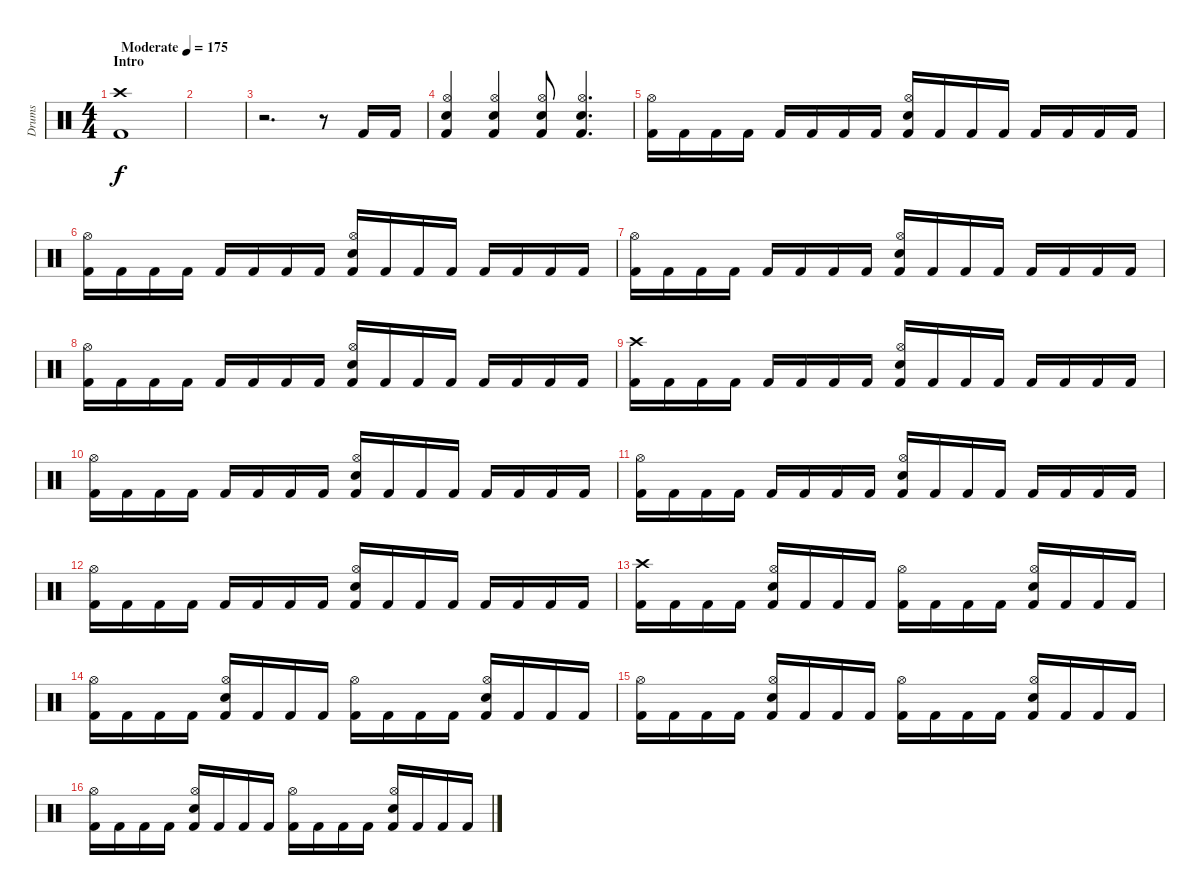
\track ("Drums" "Drums") {instrument percussion}
\staff {score}
\articulation defaults
\ts (4 4)
\section ("" "Intro")
\tempo (175 "Moderate")
\clef neutral
\ks c
("Crash high (hit)" "Kick (hit) 2").1{dy f} |
|
r.2{d} r.8 "Kick (hit) 2".16 "Kick (hit) 2".16 |
("Hi-Hat (open)" "Snare (hit) 2" "Kick (hit) 2").4 ("Hi-Hat (open)" "Snare (hit) 2" "Kick (hit) 2").4 ("Hi-Hat (open)" "Snare (hit) 2" "Kick (hit) 2").8 ("Hi-Hat (open)" "Snare (hit) 2" "Kick (hit) 2").4{d} |
("Hi-Hat (open)" "Kick (hit) 2").16 "Kick (hit) 2".16 "Kick (hit) 2".16 "Kick (hit) 2".16 "Kick (hit) 2".16 "Kick (hit) 2".16 "Kick (hit) 2".16 "Kick (hit) 2".16 ("Hi-Hat (open)" "Snare (hit) 2" "Kick (hit) 2").16 "Kick (hit) 2".16 "Kick (hit) 2".16 "Kick (hit) 2".16 "Kick (hit) 2".16 "Kick (hit) 2".16 "Kick (hit) 2".16 "Kick (hit) 2".16 |
("Hi-Hat (open)" "Kick (hit) 2").16 "Kick (hit) 2".16 "Kick (hit) 2".16 "Kick (hit) 2".16 "Kick (hit) 2".16 "Kick (hit) 2".16 "Kick (hit) 2".16 "Kick (hit) 2".16 ("Hi-Hat (open)" "Snare (hit) 2" "Kick (hit) 2").16 "Kick (hit) 2".16 "Kick (hit) 2".16 "Kick (hit) 2".16 "Kick (hit) 2".16 "Kick (hit) 2".16 "Kick (hit) 2".16 "Kick (hit) 2".16 |
("Hi-Hat (open)" "Kick (hit) 2").16 "Kick (hit) 2".16 "Kick (hit) 2".16 "Kick (hit) 2".16 "Kick (hit) 2".16 "Kick (hit) 2".16 "Kick (hit) 2".16 "Kick (hit) 2".16 ("Hi-Hat (open)" "Snare (hit) 2" "Kick (hit) 2").16 "Kick (hit) 2".16 "Kick (hit) 2".16 "Kick (hit) 2".16 "Kick (hit) 2".16 "Kick (hit) 2".16 "Kick (hit) 2".16 "Kick (hit) 2".16 |
("Hi-Hat (open)" "Kick (hit) 2").16 "Kick (hit) 2".16 "Kick (hit) 2".16 "Kick (hit) 2".16 "Kick (hit) 2".16 "Kick (hit) 2".16 "Kick (hit) 2".16 "Kick (hit) 2".16 ("Hi-Hat (open)" "Snare (hit) 2" "Kick (hit) 2").16 "Kick (hit) 2".16 "Kick (hit) 2".16 "Kick (hit) 2".16 "Kick (hit) 2".16 "Kick (hit) 2".16 "Kick (hit) 2".16 "Kick (hit) 2".16 |
("Crash high (hit)" "Kick (hit) 2").16 "Kick (hit) 2".16 "Kick (hit) 2".16 "Kick (hit) 2".16 "Kick (hit) 2".16 "Kick (hit) 2".16 "Kick (hit) 2".16 "Kick (hit) 2".16 ("Hi-Hat (open)" "Snare (hit) 2" "Kick (hit) 2").16 "Kick (hit) 2".16 "Kick (hit) 2".16 "Kick (hit) 2".16 "Kick (hit) 2".16 "Kick (hit) 2".16 "Kick (hit) 2".16 "Kick (hit) 2".16 |
("Hi-Hat (open)" "Kick (hit) 2").16 "Kick (hit) 2".16 "Kick (hit) 2".16 "Kick (hit) 2".16 "Kick (hit) 2".16 "Kick (hit) 2".16 "Kick (hit) 2".16 "Kick (hit) 2".16 ("Hi-Hat (open)" "Snare (hit) 2" "Kick (hit) 2").16 "Kick (hit) 2".16 "Kick (hit) 2".16 "Kick (hit) 2".16 "Kick (hit) 2".16 "Kick (hit) 2".16 "Kick (hit) 2".16 "Kick (hit) 2".16 |
("Hi-Hat (open)" "Kick (hit) 2").16 "Kick (hit) 2".16 "Kick (hit) 2".16 "Kick (hit) 2".16 "Kick (hit) 2".16 "Kick (hit) 2".16 "Kick (hit) 2".16 "Kick (hit) 2".16 ("Hi-Hat (open)" "Snare (hit) 2" "Kick (hit) 2").16 "Kick (hit) 2".16 "Kick (hit) 2".16 "Kick (hit) 2".16 "Kick (hit) 2".16 "Kick (hit) 2".16 "Kick (hit) 2".16 "Kick (hit) 2".16 |
("Hi-Hat (open)" "Kick (hit) 2").16 "Kick (hit) 2".16 "Kick (hit) 2".16 "Kick (hit) 2".16 "Kick (hit) 2".16 "Kick (hit) 2".16 "Kick (hit) 2".16 "Kick (hit) 2".16 ("Hi-Hat (open)" "Snare (hit) 2" "Kick (hit) 2").16 "Kick (hit) 2".16 "Kick (hit) 2".16 "Kick (hit) 2".16 "Kick (hit) 2".16 "Kick (hit) 2".16 "Kick (hit) 2".16 "Kick (hit) 2".16 |
("Crash high (hit)" "Kick (hit) 2").16 "Kick (hit) 2".16 "Kick (hit) 2".16 "Kick (hit) 2".16 ("Hi-Hat (open)" "Snare (hit) 2" "Kick (hit) 2").16 "Kick (hit) 2".16 "Kick (hit) 2".16 "Kick (hit) 2".16 ("Hi-Hat (open)" "Kick (hit) 2").16 "Kick (hit) 2".16 "Kick (hit) 2".16 "Kick (hit) 2".16 ("Hi-Hat (open)" "Snare (hit) 2" "Kick (hit) 2").16 "Kick (hit) 2".16 "Kick (hit) 2".16 "Kick (hit) 2".16 |
("Hi-Hat (open)" "Kick (hit) 2").16 "Kick (hit) 2".16 "Kick (hit) 2".16 "Kick (hit) 2".16 ("Hi-Hat (open)" "Snare (hit) 2" "Kick (hit) 2").16 "Kick (hit) 2".16 "Kick (hit) 2".16 "Kick (hit) 2".16 ("Hi-Hat (open)" "Kick (hit) 2").16 "Kick (hit) 2".16 "Kick (hit) 2".16 "Kick (hit) 2".16 ("Hi-Hat (open)" "Snare (hit) 2" "Kick (hit) 2").16 "Kick (hit) 2".16 "Kick (hit) 2".16 "Kick (hit) 2".16 |
("Hi-Hat (open)" "Kick (hit) 2").16 "Kick (hit) 2".16 "Kick (hit) 2".16 "Kick (hit) 2".16 ("Hi-Hat (open)" "Snare (hit) 2" "Kick (hit) 2").16 "Kick (hit) 2".16 "Kick (hit) 2".16 "Kick (hit) 2".16 ("Hi-Hat (open)" "Kick (hit) 2").16 "Kick (hit) 2".16 "Kick (hit) 2".16 "Kick (hit) 2".16 ("Hi-Hat (open)" "Snare (hit) 2" "Kick (hit) 2").16 "Kick (hit) 2".16 "Kick (hit) 2".16 "Kick (hit) 2".16 |
("Hi-Hat (open)" "Kick (hit) 2").16 "Kick (hit) 2".16 "Kick (hit) 2".16 "Kick (hit) 2".16 ("Hi-Hat (open)" "Snare (hit) 2" "Kick (hit) 2").16 "Kick (hit) 2".16 "Kick (hit) 2".16 "Kick (hit) 2".16 ("Hi-Hat (open)" "Kick (hit) 2").16 "Kick (hit) 2".16 "Kick (hit) 2".16 "Kick (hit) 2".16 ("Hi-Hat (open)" "Snare (hit) 2" "Kick (hit) 2").16 "Kick (hit) 2".16 "Kick (hit) 2".16 "Kick (hit) 2".16
